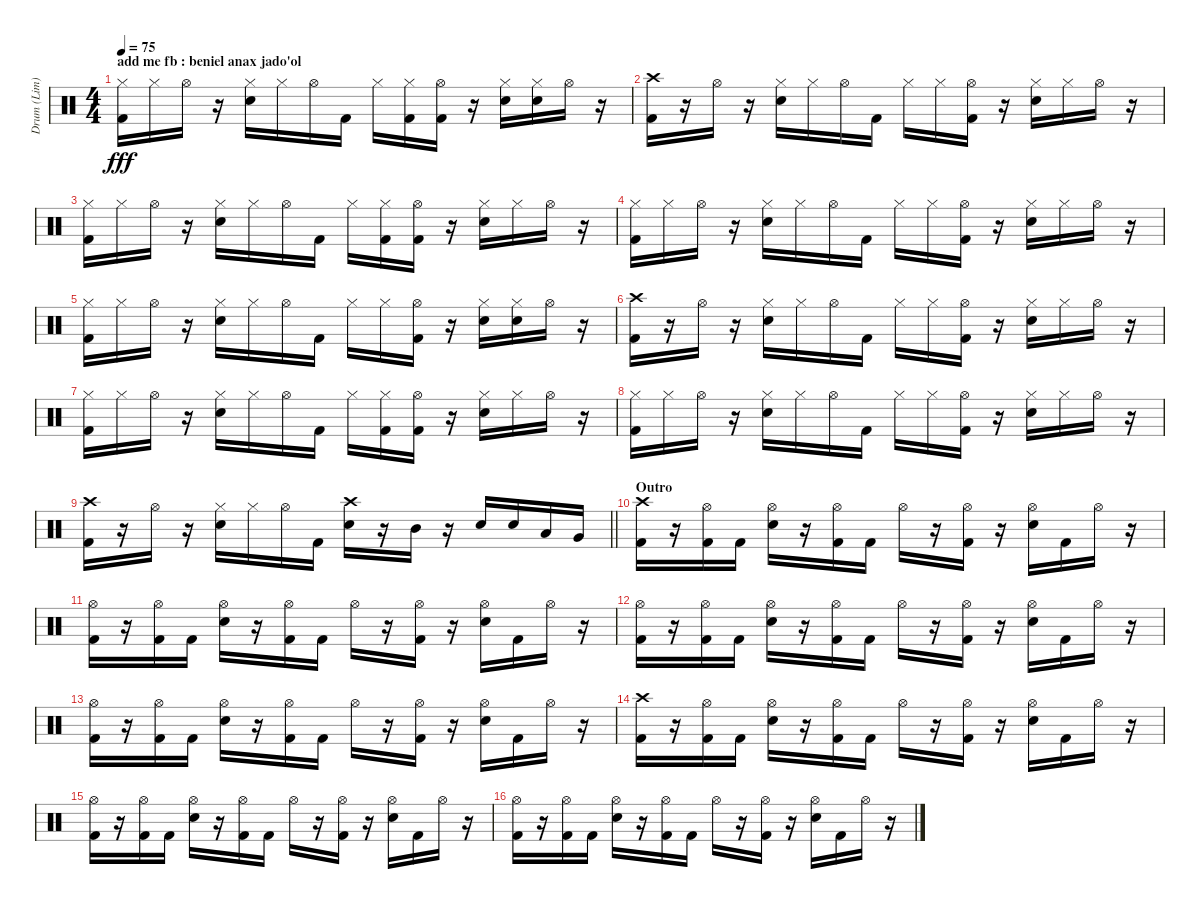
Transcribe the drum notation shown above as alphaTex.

\track ("Drum (Lim)" "Drum (Lim)") {instrument percussion}
\staff {score}
\articulation defaults
\ts (4 4)
\section ("" "add me fb : beniel anax jado'ol")
\tempo 75
\clef neutral
\ks c
("Hi-Hat (closed)" "Kick (hit) 2").16{dy fff} "Hi-Hat (closed)".16 "Hi-Hat (open)".16 r.16 ("Hi-Hat (closed)" "Electric Snare (hit)").16 "Hi-Hat (closed)".16 "Hi-Hat (open)".16 "Kick (hit) 2".16 "Hi-Hat (closed)".16 ("Kick (hit) 2" "Hi-Hat (closed)").16 ("Kick (hit) 2" "Hi-Hat (open)").16 r.16 ("Electric Snare (hit)" "Hi-Hat (closed)").16 ("Electric Snare (hit)" "Hi-Hat (closed)").16 "Hi-Hat (open)".16 r.16 |
("Crash high (hit)" "Kick (hit) 2").16 r.16 "Hi-Hat (open)".16 r.16 ("Electric Snare (hit)" "Hi-Hat (closed)").16 "Hi-Hat (closed)".16 "Hi-Hat (open)".16 "Kick (hit) 2".16 "Hi-Hat (closed)".16 "Hi-Hat (closed)".16 ("Hi-Hat (open)" "Kick (hit) 2").16 r.16 ("Hi-Hat (closed)" "Electric Snare (hit)").16 "Hi-Hat (closed)".16 "Hi-Hat (open)".16 r.16 |
("Hi-Hat (closed)" "Kick (hit) 2").16 "Hi-Hat (closed)".16 "Hi-Hat (open)".16 r.16 ("Hi-Hat (closed)" "Electric Snare (hit)").16 "Hi-Hat (closed)".16 "Hi-Hat (open)".16 "Kick (hit) 2".16 "Hi-Hat (closed)".16 ("Kick (hit) 2" "Hi-Hat (closed)").16 ("Hi-Hat (open)" "Kick (hit) 2").16 r.16 ("Hi-Hat (closed)" "Electric Snare (hit)").16 "Hi-Hat (closed)".16 "Hi-Hat (open)".16 r.16 |
("Kick (hit) 2" "Hi-Hat (closed)").16 "Hi-Hat (closed)".16 "Hi-Hat (open)".16 r.16 ("Electric Snare (hit)" "Hi-Hat (closed)").16 "Hi-Hat (closed)".16 "Hi-Hat (open)".16 "Kick (hit) 2".16 "Hi-Hat (closed)".16 "Hi-Hat (closed)".16 ("Hi-Hat (open)" "Kick (hit) 2").16 r.16 ("Electric Snare (hit)" "Hi-Hat (closed)").16 "Hi-Hat (closed)".16 "Hi-Hat (open)".16 r.16 |
("Hi-Hat (closed)" "Kick (hit) 2").16 "Hi-Hat (closed)".16 "Hi-Hat (open)".16 r.16 ("Hi-Hat (closed)" "Electric Snare (hit)").16 "Hi-Hat (closed)".16 "Hi-Hat (open)".16 "Kick (hit) 2".16 "Hi-Hat (closed)".16 "Hi-Hat (closed)".16 ("Hi-Hat (open)" "Kick (hit) 2").16 r.16 ("Electric Snare (hit)" "Hi-Hat (closed)").16 ("Hi-Hat (closed)" "Electric Snare (hit)").16 "Hi-Hat (open)".16 r.16 |
("Crash high (hit)" "Kick (hit) 2").16 r.16 "Hi-Hat (open)".16 r.16 ("Electric Snare (hit)" "Hi-Hat (closed)").16 "Hi-Hat (closed)".16 "Hi-Hat (open)".16 "Kick (hit) 2".16 "Hi-Hat (closed)".16 "Hi-Hat (closed)".16 ("Hi-Hat (open)" "Kick (hit) 2").16 r.16 ("Hi-Hat (closed)" "Electric Snare (hit)").16 "Hi-Hat (closed)".16 "Hi-Hat (open)".16 r.16 |
("Hi-Hat (closed)" "Kick (hit) 2").16 "Hi-Hat (closed)".16 "Hi-Hat (open)".16 r.16 ("Electric Snare (hit)" "Hi-Hat (closed)").16 "Hi-Hat (closed)".16 "Hi-Hat (open)".16 "Kick (hit) 2".16 "Hi-Hat (closed)".16 ("Hi-Hat (closed)" "Kick (hit) 2").16 ("Hi-Hat (open)" "Kick (hit) 2").16 r.16 ("Electric Snare (hit)" "Hi-Hat (closed)").16 "Hi-Hat (closed)".16 "Hi-Hat (open)".16 r.16 |
("Kick (hit) 2" "Hi-Hat (closed)").16 "Hi-Hat (closed)".16 "Hi-Hat (open)".16 r.16 ("Electric Snare (hit)" "Hi-Hat (closed)").16 "Hi-Hat (closed)".16 "Hi-Hat (open)".16 "Kick (hit) 2".16 "Hi-Hat (closed)".16 "Hi-Hat (closed)".16 ("Kick (hit) 2" "Hi-Hat (open)").16 r.16 ("Electric Snare (hit)" "Hi-Hat (closed)").16 "Hi-Hat (closed)".16 "Hi-Hat (open)".16 r.16 |
\barLineRight lightlight
("Kick (hit) 2" "Crash high (hit)").16 r.16 "Hi-Hat (open)".16 r.16 ("Electric Snare (hit)" "Hi-Hat (closed)").16 "Hi-Hat (closed)".16 "Hi-Hat (open)".16 "Kick (hit) 2".16 ("Electric Snare (hit)" "Crash high (hit)").16 r.16 "Mid Tom (hit)".16 r.16 "Electric Snare (hit)".16 "Electric Snare (hit)".16 "Low Tom (hit)".16 "Very Low Tom (hit)".16 |
\section ("" "Outro")
("Kick (hit) 2" "Crash high (hit)").16 r.16 ("Hi-Hat (open)" "Kick (hit) 2").16 "Kick (hit) 2".16 ("Hi-Hat (open)" "Electric Snare (hit)").16 r.16 ("Hi-Hat (open)" "Kick (hit) 2").16 "Kick (hit) 2".16 "Hi-Hat (open)".16 r.16 ("Hi-Hat (open)" "Kick (hit) 2").16 r.16 ("Hi-Hat (open)" "Electric Snare (hit)").16 "Kick (hit) 2".16 "Hi-Hat (open)".16 r.16 |
("Kick (hit) 2" "Hi-Hat (open)").16 r.16 ("Hi-Hat (open)" "Kick (hit) 2").16 "Kick (hit) 2".16 ("Hi-Hat (open)" "Electric Snare (hit)").16 r.16 ("Hi-Hat (open)" "Kick (hit) 2").16 "Kick (hit) 2".16 "Hi-Hat (open)".16 r.16 ("Kick (hit) 2" "Hi-Hat (open)").16 r.16 ("Electric Snare (hit)" "Hi-Hat (open)").16 "Kick (hit) 2".16 "Hi-Hat (open)".16 r.16 |
("Hi-Hat (open)" "Kick (hit) 2").16 r.16 ("Kick (hit) 2" "Hi-Hat (open)").16 "Kick (hit) 2".16 ("Hi-Hat (open)" "Electric Snare (hit)").16 r.16 ("Hi-Hat (open)" "Kick (hit) 2").16 "Kick (hit) 2".16 "Hi-Hat (open)".16 r.16 ("Hi-Hat (open)" "Kick (hit) 2").16 r.16 ("Hi-Hat (open)" "Electric Snare (hit)").16 "Kick (hit) 2".16 "Hi-Hat (open)".16 r.16 |
("Kick (hit) 2" "Hi-Hat (open)").16 r.16 ("Kick (hit) 2" "Hi-Hat (open)").16 "Kick (hit) 2".16 ("Hi-Hat (open)" "Electric Snare (hit)").16 r.16 ("Hi-Hat (open)" "Kick (hit) 2").16 "Kick (hit) 2".16 "Hi-Hat (open)".16 r.16 ("Kick (hit) 2" "Hi-Hat (open)").16 r.16 ("Hi-Hat (open)" "Electric Snare (hit)").16 "Kick (hit) 2".16 "Hi-Hat (open)".16 r.16 |
("Crash high (hit)" "Kick (hit) 2").16 r.16 ("Kick (hit) 2" "Hi-Hat (open)").16 "Kick (hit) 2".16 ("Hi-Hat (open)" "Electric Snare (hit)").16 r.16 ("Hi-Hat (open)" "Kick (hit) 2").16 "Kick (hit) 2".16 "Hi-Hat (open)".16 r.16 ("Hi-Hat (open)" "Kick (hit) 2").16 r.16 ("Electric Snare (hit)" "Hi-Hat (open)").16 "Kick (hit) 2".16 "Hi-Hat (open)".16 r.16 |
("Hi-Hat (open)" "Kick (hit) 2").16 r.16 ("Kick (hit) 2" "Hi-Hat (open)").16 "Kick (hit) 2".16 ("Hi-Hat (open)" "Electric Snare (hit)").16 r.16 ("Kick (hit) 2" "Hi-Hat (open)").16 "Kick (hit) 2".16 "Hi-Hat (open)".16 r.16 ("Kick (hit) 2" "Hi-Hat (open)").16 r.16 ("Hi-Hat (open)" "Electric Snare (hit)").16 "Kick (hit) 2".16 "Hi-Hat (open)".16 r.16 |
("Hi-Hat (open)" "Kick (hit) 2").16 r.16 ("Kick (hit) 2" "Hi-Hat (open)").16 "Kick (hit) 2".16 ("Hi-Hat (open)" "Electric Snare (hit)").16 r.16 ("Hi-Hat (open)" "Kick (hit) 2").16 "Kick (hit) 2".16 "Hi-Hat (open)".16 r.16 ("Kick (hit) 2" "Hi-Hat (open)").16 r.16 ("Hi-Hat (open)" "Electric Snare (hit)").16 "Kick (hit) 2".16 "Hi-Hat (open)".16 r.16
